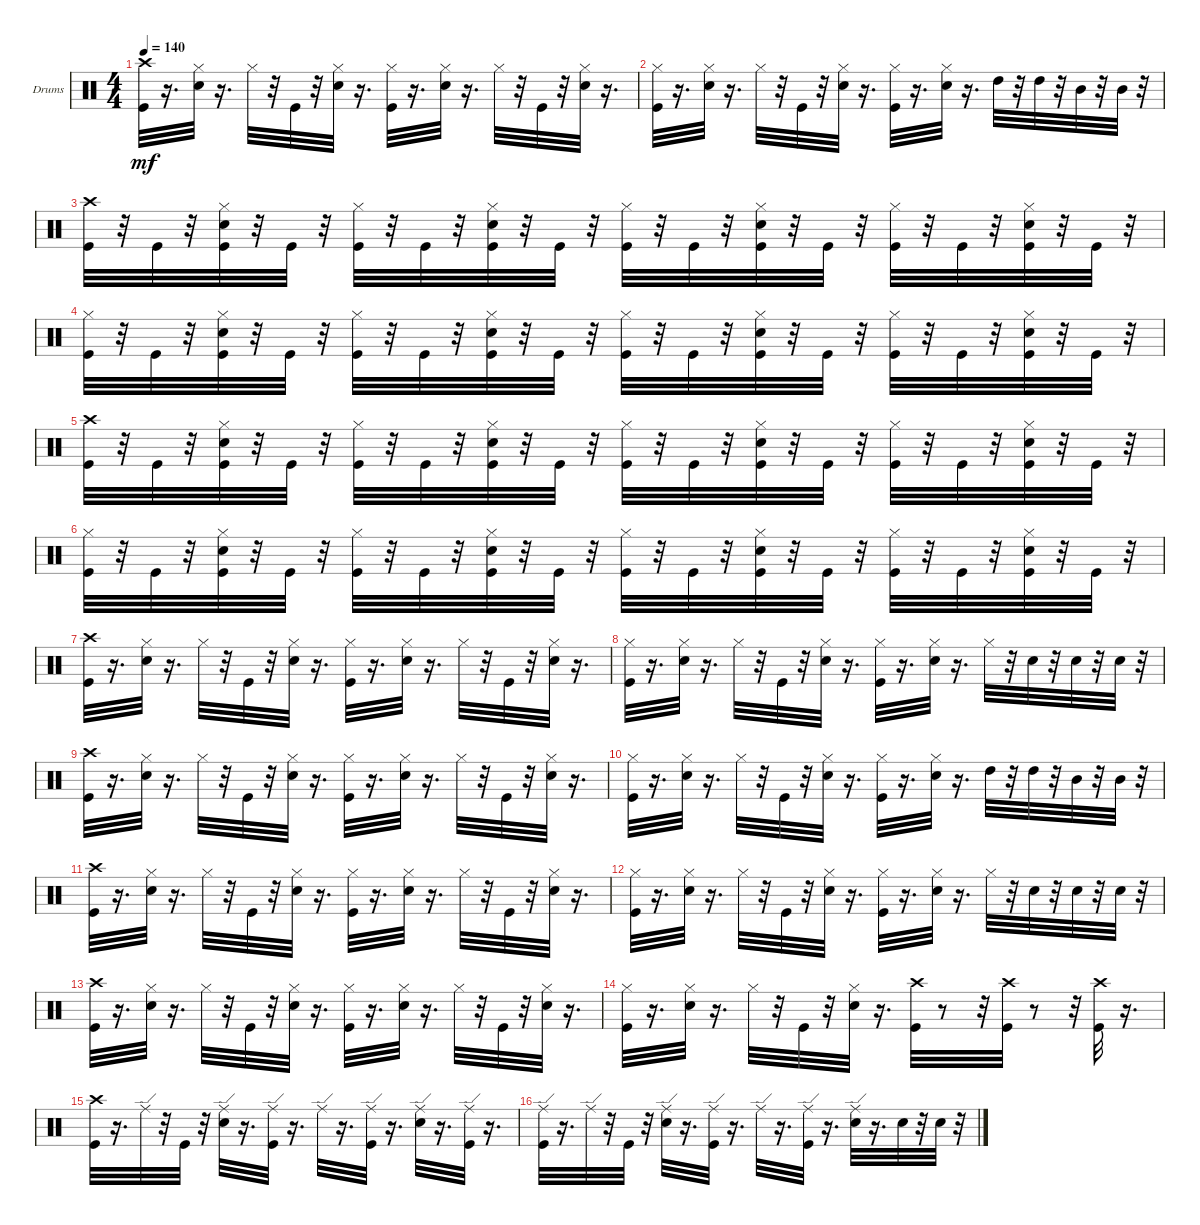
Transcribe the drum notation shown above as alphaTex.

\bracketExtendMode groupsimilarinstruments
\firstSystemTrackNameOrientation horizontal
\otherSystemsTrackNameOrientation horizontal
\track ("" "Drums") {instrument percussion}
\staff {score}
\articulation defaults
\ts (4 4)
\tempo 140
\clef neutral
\ks c
("Crash high (hit)" "Kick (hit)").32{dy mf} r.16{d} ("Snare (hit) 2" "Hi-Hat (closed)").32 r.16{d} "Hi-Hat (closed)".32 r.32 "Kick (hit)".32 r.32 ("Snare (hit) 2" "Hi-Hat (closed)").32 r.16{d} ("Kick (hit)" "Hi-Hat (closed)").32 r.16{d} ("Snare (hit) 2" "Hi-Hat (closed)").32 r.16{d} "Hi-Hat (closed)".32 r.32 "Kick (hit)".32 r.32 ("Snare (hit) 2" "Hi-Hat (closed)").32 r.16{d} |
("Kick (hit)" "Hi-Hat (closed)").32 r.16{d} ("Snare (hit) 2" "Hi-Hat (closed)").32 r.16{d} "Hi-Hat (closed)".32 r.32 "Kick (hit)".32 r.32 ("Snare (hit) 2" "Hi-Hat (closed)").32 r.16{d} ("Kick (hit)" "Hi-Hat (closed)").32 r.16{d} ("Snare (hit) 2" "Hi-Hat (closed)").32 r.16{d} "High Tom (hit)".32 r.32 "High Tom (hit)".32 r.32 "Mid Tom (hit)".32 r.32 "Mid Tom (hit)".32 r.32 |
("Crash high (hit)" "Kick (hit)").32 r.32 "Kick (hit)".32 r.32 ("Kick (hit)" "Snare (hit) 2" "Hi-Hat (closed)").32 r.32 "Kick (hit)".32 r.32 ("Kick (hit)" "Hi-Hat (closed)").32 r.32 "Kick (hit)".32 r.32 ("Kick (hit)" "Snare (hit) 2" "Hi-Hat (closed)").32 r.32 "Kick (hit)".32 r.32 ("Kick (hit)" "Hi-Hat (closed)").32 r.32 "Kick (hit)".32 r.32 ("Kick (hit)" "Snare (hit) 2" "Hi-Hat (closed)").32 r.32 "Kick (hit)".32 r.32 ("Kick (hit)" "Hi-Hat (closed)").32 r.32 "Kick (hit)".32 r.32 ("Kick (hit)" "Snare (hit) 2" "Hi-Hat (closed)").32 r.32 "Kick (hit)".32 r.32 |
("Kick (hit)" "Hi-Hat (closed)").32 r.32 "Kick (hit)".32 r.32 ("Kick (hit)" "Snare (hit) 2" "Hi-Hat (closed)").32 r.32 "Kick (hit)".32 r.32 ("Kick (hit)" "Hi-Hat (closed)").32 r.32 "Kick (hit)".32 r.32 ("Kick (hit)" "Snare (hit) 2" "Hi-Hat (closed)").32 r.32 "Kick (hit)".32 r.32 ("Kick (hit)" "Hi-Hat (closed)").32 r.32 "Kick (hit)".32 r.32 ("Kick (hit)" "Snare (hit) 2" "Hi-Hat (closed)").32 r.32 "Kick (hit)".32 r.32 ("Kick (hit)" "Hi-Hat (closed)").32 r.32 "Kick (hit)".32 r.32 ("Hi-Hat (closed)" "Kick (hit)" "Snare (hit) 2").32 r.32 "Kick (hit)".32 r.32 |
("Crash high (hit)" "Kick (hit)").32 r.32 "Kick (hit)".32 r.32 ("Kick (hit)" "Snare (hit) 2" "Hi-Hat (closed)").32 r.32 "Kick (hit)".32 r.32 ("Kick (hit)" "Hi-Hat (closed)").32 r.32 "Kick (hit)".32 r.32 ("Kick (hit)" "Snare (hit) 2" "Hi-Hat (closed)").32 r.32 "Kick (hit)".32 r.32 ("Kick (hit)" "Hi-Hat (closed)").32 r.32 "Kick (hit)".32 r.32 ("Kick (hit)" "Snare (hit) 2" "Hi-Hat (closed)").32 r.32 "Kick (hit)".32 r.32 ("Kick (hit)" "Hi-Hat (closed)").32 r.32 "Kick (hit)".32 r.32 ("Kick (hit)" "Snare (hit) 2" "Hi-Hat (closed)").32 r.32 "Kick (hit)".32 r.32 |
("Kick (hit)" "Hi-Hat (closed)").32 r.32 "Kick (hit)".32 r.32 ("Kick (hit)" "Snare (hit) 2" "Hi-Hat (closed)").32 r.32 "Kick (hit)".32 r.32 ("Kick (hit)" "Hi-Hat (closed)").32 r.32 "Kick (hit)".32 r.32 ("Kick (hit)" "Snare (hit) 2" "Hi-Hat (closed)").32 r.32 "Kick (hit)".32 r.32 ("Kick (hit)" "Hi-Hat (closed)").32 r.32 "Kick (hit)".32 r.32 ("Kick (hit)" "Snare (hit) 2" "Hi-Hat (closed)").32 r.32 "Kick (hit)".32 r.32 ("Kick (hit)" "Hi-Hat (closed)").32 r.32 "Kick (hit)".32 r.32 ("Kick (hit)" "Snare (hit) 2" "Hi-Hat (closed)").32 r.32 "Kick (hit)".32 r.32 |
("Crash high (hit)" "Kick (hit)").32 r.16{d} ("Snare (hit) 2" "Hi-Hat (closed)").32 r.16{d} "Hi-Hat (closed)".32 r.32 "Kick (hit)".32 r.32 ("Snare (hit) 2" "Hi-Hat (closed)").32 r.16{d} ("Kick (hit)" "Hi-Hat (closed)").32 r.16{d} ("Snare (hit) 2" "Hi-Hat (closed)").32 r.16{d} "Hi-Hat (closed)".32 r.32 "Kick (hit)".32 r.32 ("Snare (hit) 2" "Hi-Hat (closed)").32 r.16{d} |
("Kick (hit)" "Hi-Hat (closed)").32 r.16{d} ("Snare (hit) 2" "Hi-Hat (closed)").32 r.16{d} "Hi-Hat (closed)".32 r.32 "Kick (hit)".32 r.32 ("Snare (hit) 2" "Hi-Hat (closed)").32 r.16{d} ("Kick (hit)" "Hi-Hat (closed)").32 r.16{d} ("Snare (hit) 2" "Hi-Hat (closed)").32 r.16{d} "Hi-Hat (closed)".32 r.32 "Snare (hit) 2".32 r.32 "Snare (hit) 2".32 r.32 "Snare (hit) 2".32 r.32 |
("Crash high (hit)" "Kick (hit)").32 r.16{d} ("Snare (hit) 2" "Hi-Hat (closed)").32 r.16{d} "Hi-Hat (closed)".32 r.32 "Kick (hit)".32 r.32 ("Snare (hit) 2" "Hi-Hat (closed)").32 r.16{d} ("Kick (hit)" "Hi-Hat (closed)").32 r.16{d} ("Snare (hit) 2" "Hi-Hat (closed)").32 r.16{d} "Hi-Hat (closed)".32 r.32 "Kick (hit)".32 r.32 ("Snare (hit) 2" "Hi-Hat (closed)").32 r.16{d} |
("Kick (hit)" "Hi-Hat (closed)").32 r.16{d} ("Snare (hit) 2" "Hi-Hat (closed)").32 r.16{d} "Hi-Hat (closed)".32 r.32 "Kick (hit)".32 r.32 ("Snare (hit) 2" "Hi-Hat (closed)").32 r.16{d} ("Kick (hit)" "Hi-Hat (closed)").32 r.16{d} ("Snare (hit) 2" "Hi-Hat (closed)").32 r.16{d} "High Tom (hit)".32 r.32 "High Tom (hit)".32 r.32 "Mid Tom (hit)".32 r.32 "Mid Tom (hit)".32 r.32 |
("Crash high (hit)" "Kick (hit)").32 r.16{d} ("Snare (hit) 2" "Hi-Hat (closed)").32 r.16{d} "Hi-Hat (closed)".32 r.32 "Kick (hit)".32 r.32 ("Snare (hit) 2" "Hi-Hat (closed)").32 r.16{d} ("Kick (hit)" "Hi-Hat (closed)").32 r.16{d} ("Snare (hit) 2" "Hi-Hat (closed)").32 r.16{d} "Hi-Hat (closed)".32 r.32 "Kick (hit)".32 r.32 ("Snare (hit) 2" "Hi-Hat (closed)").32 r.16{d} |
("Kick (hit)" "Hi-Hat (closed)").32 r.16{d} ("Snare (hit) 2" "Hi-Hat (closed)").32 r.16{d} "Hi-Hat (closed)".32 r.32 "Kick (hit)".32 r.32 ("Snare (hit) 2" "Hi-Hat (closed)").32 r.16{d} ("Kick (hit)" "Hi-Hat (closed)").32 r.16{d} ("Snare (hit) 2" "Hi-Hat (closed)").32 r.16{d} "Hi-Hat (closed)".32 r.32 "Snare (hit) 2".32 r.32 "Snare (hit) 2".32 r.32 "Snare (hit) 2".32 r.32 |
("Crash high (hit)" "Kick (hit)").32 r.16{d} ("Snare (hit) 2" "Hi-Hat (closed)").32 r.16{d} "Hi-Hat (closed)".32 r.32 "Kick (hit)".32 r.32 ("Snare (hit) 2" "Hi-Hat (closed)").32 r.16{d} ("Kick (hit)" "Hi-Hat (closed)").32 r.16{d} ("Snare (hit) 2" "Hi-Hat (closed)").32 r.16{d} "Hi-Hat (closed)".32 r.32 "Kick (hit)".32 r.32 ("Snare (hit) 2" "Hi-Hat (closed)").32 r.16{d} |
("Kick (hit)" "Hi-Hat (closed)").32 r.16{d} ("Snare (hit) 2" "Hi-Hat (closed)").32 r.16{d} "Hi-Hat (closed)".32 r.32 "Kick (hit)".32 r.32 ("Snare (hit) 2" "Hi-Hat (closed)").32 r.16{d} ("Crash high (hit)" "Kick (hit)").32 r.8 r.32 ("Crash high (hit)" "Kick (hit)").32 r.8 r.32 ("Crash high (hit)" "Kick (hit)").32 r.16{d} |
("Crash high (hit)" "Kick (hit)").32 r.16{d} "Ride (edge)".32 r.32 "Kick (hit)".32 r.32 ("Snare (hit) 2" "Ride (edge)").32 r.16{d} ("Kick (hit)" "Ride (edge)").32 r.16{d} "Ride (edge)".32 r.16{d} ("Kick (hit)" "Ride (edge)").32 r.16{d} ("Snare (hit) 2" "Ride (edge)").32 r.16{d} ("Kick (hit)" "Ride (edge)").32 r.16{d} |
("Ride (edge)" "Kick (hit)").32 r.16{d} "Ride (edge)".32 r.32 "Kick (hit)".32 r.32 ("Snare (hit) 2" "Ride (edge)").32 r.16{d} ("Kick (hit)" "Ride (edge)").32 r.16{d} "Ride (edge)".32 r.16{d} ("Kick (hit)" "Ride (edge)").32 r.16{d} ("Snare (hit) 2" "Ride (edge)").32 r.16{d} "Snare (hit) 2".32 r.32 "Snare (hit) 2".32 r.32
